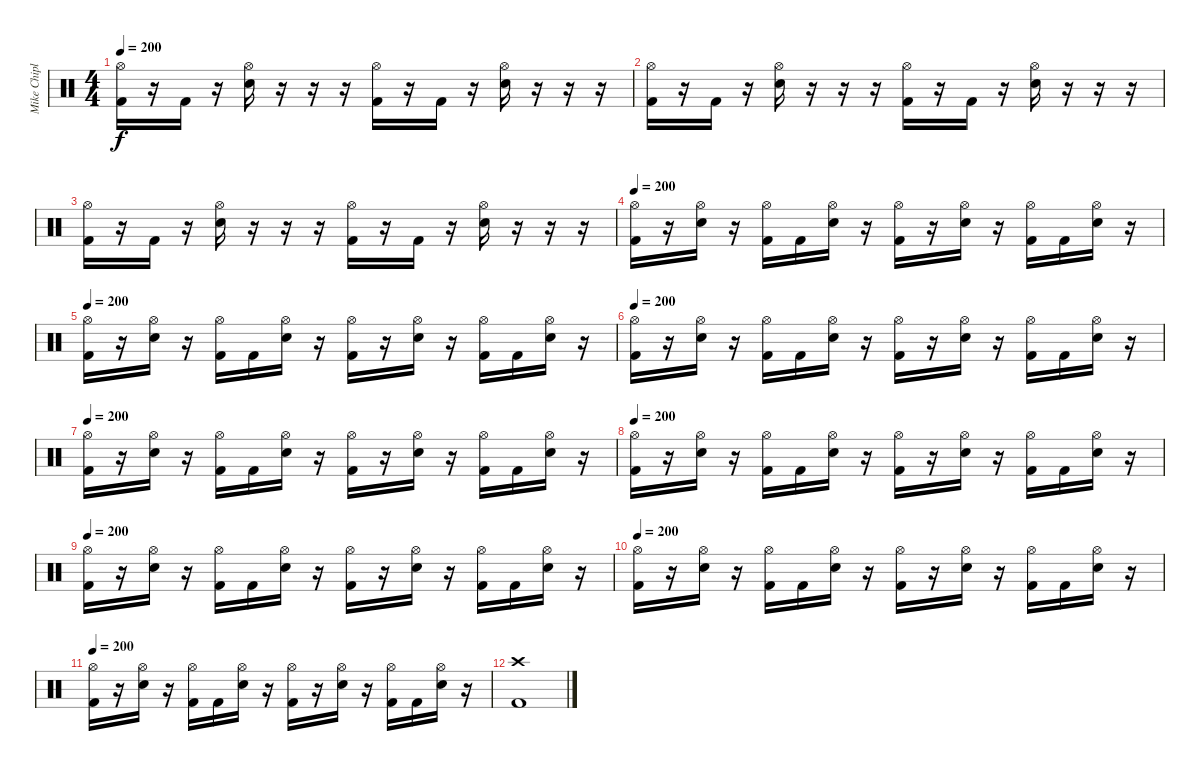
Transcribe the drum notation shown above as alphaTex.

\track ("Mike Chiplin" "Mike Chipl") {instrument percussion}
\staff {score}
\articulation defaults
\ts (4 4)
\tempo 200
\clef neutral
\ks c
("Hi-Hat (open)" "Kick (hit) 2").16{dy f} r.16 "Kick (hit) 2".16 r.16 ("Hi-Hat (open)" "Electric Snare (hit)").16 r.16 r.16 r.16 ("Hi-Hat (open)" "Kick (hit) 2").16 r.16 "Kick (hit) 2".16 r.16 ("Hi-Hat (open)" "Electric Snare (hit)").16 r.16 r.16 r.16 |
("Hi-Hat (open)" "Kick (hit) 2").16 r.16 "Kick (hit) 2".16 r.16 ("Hi-Hat (open)" "Electric Snare (hit)").16 r.16 r.16 r.16 ("Hi-Hat (open)" "Kick (hit) 2").16 r.16 "Kick (hit) 2".16 r.16 ("Hi-Hat (open)" "Electric Snare (hit)").16 r.16 r.16 r.16 |
("Hi-Hat (open)" "Kick (hit) 2").16 r.16 "Kick (hit) 2".16 r.16 ("Hi-Hat (open)" "Electric Snare (hit)").16 r.16 r.16 r.16 ("Hi-Hat (open)" "Kick (hit) 2").16 r.16 "Kick (hit) 2".16 r.16 ("Hi-Hat (open)" "Electric Snare (hit)").16 r.16 r.16 r.16 |
\tempo 200
("Hi-Hat (open)" "Kick (hit) 2").16 r.16 ("Hi-Hat (open)" "Electric Snare (hit)").16 r.16 ("Hi-Hat (open)" "Kick (hit) 2").16 "Kick (hit) 2".16 ("Hi-Hat (open)" "Electric Snare (hit)").16 r.16 ("Hi-Hat (open)" "Kick (hit) 2").16 r.16 ("Hi-Hat (open)" "Electric Snare (hit)").16 r.16 ("Hi-Hat (open)" "Kick (hit) 2").16 "Kick (hit) 2".16 ("Hi-Hat (open)" "Electric Snare (hit)").16 r.16 |
\tempo 200
("Hi-Hat (open)" "Kick (hit) 2").16 r.16 ("Hi-Hat (open)" "Electric Snare (hit)").16 r.16 ("Hi-Hat (open)" "Kick (hit) 2").16 "Kick (hit) 2".16 ("Hi-Hat (open)" "Electric Snare (hit)").16 r.16 ("Hi-Hat (open)" "Kick (hit) 2").16 r.16 ("Hi-Hat (open)" "Electric Snare (hit)").16 r.16 ("Hi-Hat (open)" "Kick (hit) 2").16 "Kick (hit) 2".16 ("Hi-Hat (open)" "Electric Snare (hit)").16 r.16 |
\tempo 200
("Hi-Hat (open)" "Kick (hit) 2").16 r.16 ("Hi-Hat (open)" "Electric Snare (hit)").16 r.16 ("Hi-Hat (open)" "Kick (hit) 2").16 "Kick (hit) 2".16 ("Hi-Hat (open)" "Electric Snare (hit)").16 r.16 ("Hi-Hat (open)" "Kick (hit) 2").16 r.16 ("Hi-Hat (open)" "Electric Snare (hit)").16 r.16 ("Hi-Hat (open)" "Kick (hit) 2").16 "Kick (hit) 2".16 ("Hi-Hat (open)" "Electric Snare (hit)").16 r.16 |
\tempo 200
("Hi-Hat (open)" "Kick (hit) 2").16 r.16 ("Hi-Hat (open)" "Electric Snare (hit)").16 r.16 ("Hi-Hat (open)" "Kick (hit) 2").16 "Kick (hit) 2".16 ("Hi-Hat (open)" "Electric Snare (hit)").16 r.16 ("Hi-Hat (open)" "Kick (hit) 2").16 r.16 ("Hi-Hat (open)" "Electric Snare (hit)").16 r.16 ("Hi-Hat (open)" "Kick (hit) 2").16 "Kick (hit) 2".16 ("Hi-Hat (open)" "Electric Snare (hit)").16 r.16 |
\tempo 200
("Hi-Hat (open)" "Kick (hit) 2").16 r.16 ("Hi-Hat (open)" "Electric Snare (hit)").16 r.16 ("Hi-Hat (open)" "Kick (hit) 2").16 "Kick (hit) 2".16 ("Hi-Hat (open)" "Electric Snare (hit)").16 r.16 ("Hi-Hat (open)" "Kick (hit) 2").16 r.16 ("Hi-Hat (open)" "Electric Snare (hit)").16 r.16 ("Hi-Hat (open)" "Kick (hit) 2").16 "Kick (hit) 2".16 ("Hi-Hat (open)" "Electric Snare (hit)").16 r.16 |
\tempo 200
("Hi-Hat (open)" "Kick (hit) 2").16 r.16 ("Hi-Hat (open)" "Electric Snare (hit)").16 r.16 ("Hi-Hat (open)" "Kick (hit) 2").16 "Kick (hit) 2".16 ("Hi-Hat (open)" "Electric Snare (hit)").16 r.16 ("Hi-Hat (open)" "Kick (hit) 2").16 r.16 ("Hi-Hat (open)" "Electric Snare (hit)").16 r.16 ("Hi-Hat (open)" "Kick (hit) 2").16 "Kick (hit) 2".16 ("Hi-Hat (open)" "Electric Snare (hit)").16 r.16 |
\tempo 200
("Hi-Hat (open)" "Kick (hit) 2").16 r.16 ("Hi-Hat (open)" "Electric Snare (hit)").16 r.16 ("Hi-Hat (open)" "Kick (hit) 2").16 "Kick (hit) 2".16 ("Hi-Hat (open)" "Electric Snare (hit)").16 r.16 ("Hi-Hat (open)" "Kick (hit) 2").16 r.16 ("Hi-Hat (open)" "Electric Snare (hit)").16 r.16 ("Hi-Hat (open)" "Kick (hit) 2").16 "Kick (hit) 2".16 ("Hi-Hat (open)" "Electric Snare (hit)").16 r.16 |
\tempo 200
("Hi-Hat (open)" "Kick (hit) 2").16 r.16 ("Hi-Hat (open)" "Electric Snare (hit)").16 r.16 ("Hi-Hat (open)" "Kick (hit) 2").16 "Kick (hit) 2".16 ("Hi-Hat (open)" "Electric Snare (hit)").16 r.16 ("Hi-Hat (open)" "Kick (hit) 2").16 r.16 ("Hi-Hat (open)" "Electric Snare (hit)").16 r.16 ("Hi-Hat (open)" "Kick (hit) 2").16 "Kick (hit) 2".16 ("Hi-Hat (open)" "Electric Snare (hit)").16 r.16 |
("Crash high (hit)" "Kick (hit) 2").1
